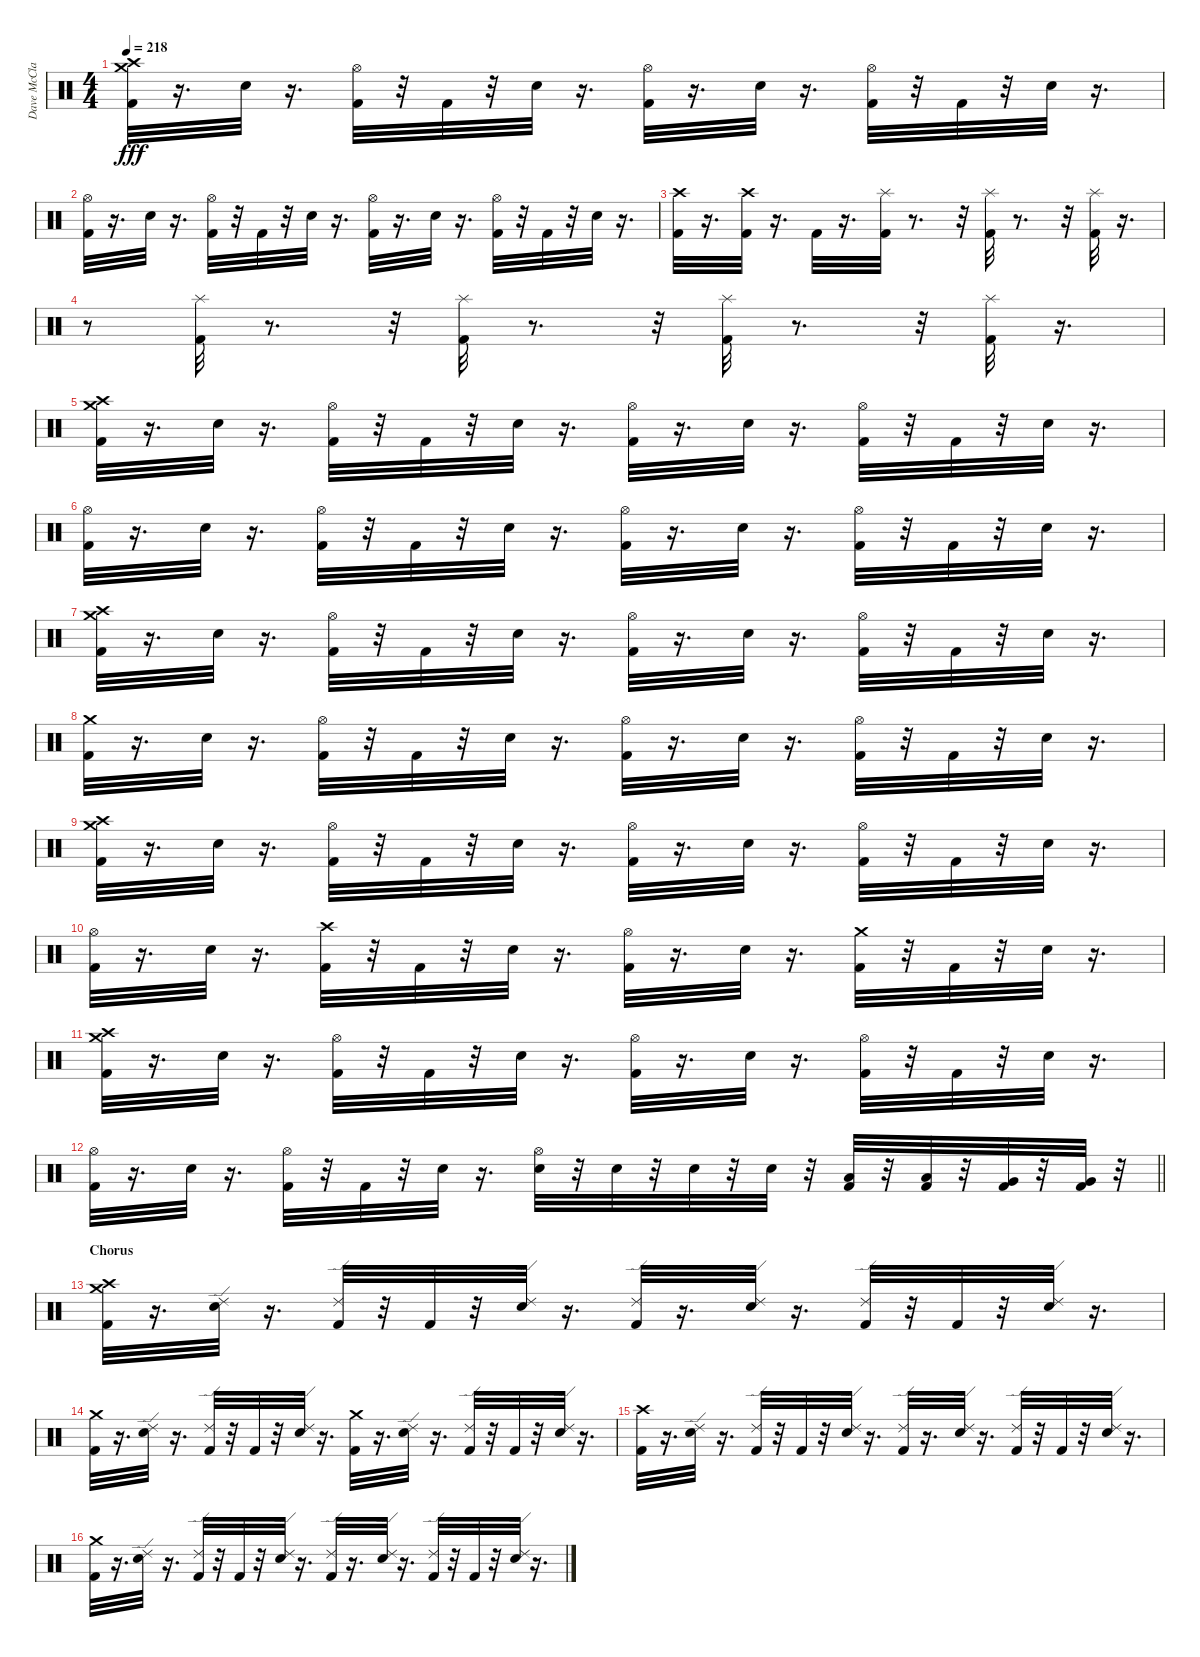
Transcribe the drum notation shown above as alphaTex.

\track ("Dave McClain" "Dave McCla") {instrument percussion}
\staff {score}
\articulation defaults
\ts (4 4)
\tempo 218
\clef neutral
\ks c
("Crash medium (hit)" "Crash high (hit)" "Kick (hit) 2").32{dy fff} r.16{d} "Snare (hit) 2".32 r.16{d} ("Kick (hit) 2" "Hi-Hat (open)").32 r.32 "Kick (hit) 2".32 r.32 "Snare (hit) 2".32 r.16{d} ("Hi-Hat (open)" "Kick (hit) 2").32 r.16{d} "Snare (hit) 2".32 r.16{d} ("Hi-Hat (open)" "Kick (hit) 2").32 r.32 "Kick (hit) 2".32 r.32 "Snare (hit) 2".32 r.16{d} |
("Hi-Hat (open)" "Kick (hit) 2").32 r.16{d} "Snare (hit) 2".32 r.16{d} ("Hi-Hat (open)" "Kick (hit) 2").32 r.32 "Kick (hit) 2".32 r.32 "Snare (hit) 2".32 r.16{d} ("Hi-Hat (open)" "Kick (hit) 2").32 r.16{d} "Snare (hit) 2".32 r.16{d} ("Hi-Hat (open)" "Kick (hit) 2").32 r.32 "Kick (hit) 2".32 r.32 "Snare (hit) 2".32 r.16{d} |
("Crash high (hit)" "Kick (hit) 2").32 r.16{d} ("Crash high (hit)" "Kick (hit) 2").32 r.16{d} "Kick (hit) 2".32 r.16{d} ("Kick (hit) 2" "Splash (hit)").32 r.8{d} r.32 ("Kick (hit) 2" "Splash (hit)").32 r.8{d} r.32 ("Kick (hit) 2" "Splash (hit)").32 r.16{d} |
r.8 ("Kick (hit) 2" "Splash (hit)").32 r.8{d} r.32 ("Kick (hit) 2" "Splash (hit)").32 r.8{d} r.32 ("Kick (hit) 2" "Splash (hit)").32 r.8{d} r.32 ("Splash (hit)" "Kick (hit) 2").32 r.16{d} |
("Crash medium (hit)" "Crash high (hit)" "Kick (hit) 2").32 r.16{d} "Snare (hit) 2".32 r.16{d} ("Kick (hit) 2" "Hi-Hat (open)").32 r.32 "Kick (hit) 2".32 r.32 "Snare (hit) 2".32 r.16{d} ("Hi-Hat (open)" "Kick (hit) 2").32 r.16{d} "Snare (hit) 2".32 r.16{d} ("Hi-Hat (open)" "Kick (hit) 2").32 r.32 "Kick (hit) 2".32 r.32 "Snare (hit) 2".32 r.16{d} |
("Hi-Hat (open)" "Kick (hit) 2").32 r.16{d} "Snare (hit) 2".32 r.16{d} ("Hi-Hat (open)" "Kick (hit) 2").32 r.32 "Kick (hit) 2".32 r.32 "Snare (hit) 2".32 r.16{d} ("Hi-Hat (open)" "Kick (hit) 2").32 r.16{d} "Snare (hit) 2".32 r.16{d} ("Hi-Hat (open)" "Kick (hit) 2").32 r.32 "Kick (hit) 2".32 r.32 "Snare (hit) 2".32 r.16{d} |
("Crash medium (hit)" "Crash high (hit)" "Kick (hit) 2").32 r.16{d} "Snare (hit) 2".32 r.16{d} ("Kick (hit) 2" "Hi-Hat (open)").32 r.32 "Kick (hit) 2".32 r.32 "Snare (hit) 2".32 r.16{d} ("Hi-Hat (open)" "Kick (hit) 2").32 r.16{d} "Snare (hit) 2".32 r.16{d} ("Hi-Hat (open)" "Kick (hit) 2").32 r.32 "Kick (hit) 2".32 r.32 "Snare (hit) 2".32 r.16{d} |
("Crash medium (hit)" "Kick (hit) 2").32 r.16{d} "Snare (hit) 2".32 r.16{d} ("Hi-Hat (open)" "Kick (hit) 2").32 r.32 "Kick (hit) 2".32 r.32 "Snare (hit) 2".32 r.16{d} ("Hi-Hat (open)" "Kick (hit) 2").32 r.16{d} "Snare (hit) 2".32 r.16{d} ("Hi-Hat (open)" "Kick (hit) 2").32 r.32 "Kick (hit) 2".32 r.32 "Snare (hit) 2".32 r.16{d} |
("Crash medium (hit)" "Crash high (hit)" "Kick (hit) 2").32 r.16{d} "Snare (hit) 2".32 r.16{d} ("Kick (hit) 2" "Hi-Hat (open)").32 r.32 "Kick (hit) 2".32 r.32 "Snare (hit) 2".32 r.16{d} ("Hi-Hat (open)" "Kick (hit) 2").32 r.16{d} "Snare (hit) 2".32 r.16{d} ("Hi-Hat (open)" "Kick (hit) 2").32 r.32 "Kick (hit) 2".32 r.32 "Snare (hit) 2".32 r.16{d} |
("Hi-Hat (open)" "Kick (hit) 2").32 r.16{d} "Snare (hit) 2".32 r.16{d} ("Crash high (hit)" "Kick (hit) 2").32 r.32 "Kick (hit) 2".32 r.32 "Snare (hit) 2".32 r.16{d} ("Hi-Hat (open)" "Kick (hit) 2").32 r.16{d} "Snare (hit) 2".32 r.16{d} ("Crash medium (hit)" "Kick (hit) 2").32 r.32 "Kick (hit) 2".32 r.32 "Snare (hit) 2".32 r.16{d} |
("Crash medium (hit)" "Crash high (hit)" "Kick (hit) 2").32 r.16{d} "Snare (hit) 2".32 r.16{d} ("Kick (hit) 2" "Hi-Hat (open)").32 r.32 "Kick (hit) 2".32 r.32 "Snare (hit) 2".32 r.16{d} ("Hi-Hat (open)" "Kick (hit) 2").32 r.16{d} "Snare (hit) 2".32 r.16{d} ("Hi-Hat (open)" "Kick (hit) 2").32 r.32 "Kick (hit) 2".32 r.32 "Snare (hit) 2".32 r.16{d} |
\barLineRight lightlight
("Hi-Hat (open)" "Kick (hit) 2").32 r.16{d} "Snare (hit) 2".32 r.16{d} ("Hi-Hat (open)" "Kick (hit) 2").32 r.32 "Kick (hit) 2".32 r.32 "Snare (hit) 2".32 r.16{d} ("Snare (hit) 2" "Hi-Hat (open)").32 r.32 "Snare (hit) 2".32 r.32 "Snare (hit) 2".32 r.32 "Snare (hit) 2".32 r.32 ("Low Tom (hit)" "Kick (hit) 2").32 r.32 ("Low Tom (hit)" "Kick (hit) 2").32 r.32 ("Very Low Tom (hit)" "Kick (hit) 2").32 r.32 ("Very Low Tom (hit)" "Kick (hit) 2").32 r.32 |
\section ("" "Chorus")
("Crash medium (hit)" "Crash high (hit)" "Kick (hit) 2").32 r.16{d} ("Ride (edge) 2" "Snare (hit) 2").32 r.16{d} ("Ride (edge) 2" "Kick (hit) 2").32 r.32 "Kick (hit) 2".32 r.32 ("Ride (edge) 2" "Snare (hit) 2").32 r.16{d} ("Ride (edge) 2" "Kick (hit) 2").32 r.16{d} ("Ride (edge) 2" "Snare (hit) 2").32 r.16{d} ("Ride (edge) 2" "Kick (hit) 2").32 r.32 "Kick (hit) 2".32 r.32 ("Ride (edge) 2" "Snare (hit) 2").32 r.16{d} |
("Crash medium (hit)" "Kick (hit) 2").32 r.16{d} ("Ride (edge) 2" "Snare (hit) 2").32 r.16{d} ("Ride (edge) 2" "Kick (hit) 2").32 r.32 "Kick (hit) 2".32 r.32 ("Ride (edge) 2" "Snare (hit) 2").32 r.16{d} ("Crash medium (hit)" "Kick (hit) 2").32 r.16{d} ("Ride (edge) 2" "Snare (hit) 2").32 r.16{d} ("Ride (edge) 2" "Kick (hit) 2").32 r.32 "Kick (hit) 2".32 r.32 ("Ride (edge) 2" "Snare (hit) 2").32 r.16{d} |
("Crash high (hit)" "Kick (hit) 2").32 r.16{d} ("Ride (edge) 2" "Snare (hit) 2").32 r.16{d} ("Ride (edge) 2" "Kick (hit) 2").32 r.32 "Kick (hit) 2".32 r.32 ("Ride (edge) 2" "Snare (hit) 2").32 r.16{d} ("Ride (edge) 2" "Kick (hit) 2").32 r.16{d} ("Ride (edge) 2" "Snare (hit) 2").32 r.16{d} ("Ride (edge) 2" "Kick (hit) 2").32 r.32 "Kick (hit) 2".32 r.32 ("Ride (edge) 2" "Snare (hit) 2").32 r.16{d} |
("Crash medium (hit)" "Kick (hit) 2").32 r.16{d} ("Ride (edge) 2" "Snare (hit) 2").32 r.16{d} ("Ride (edge) 2" "Kick (hit) 2").32 r.32 "Kick (hit) 2".32 r.32 ("Ride (edge) 2" "Snare (hit) 2").32 r.16{d} ("Ride (edge) 2" "Kick (hit) 2").32 r.16{d} ("Ride (edge) 2" "Snare (hit) 2").32 r.16{d} ("Ride (edge) 2" "Kick (hit) 2").32 r.32 "Kick (hit) 2".32 r.32 ("Ride (edge) 2" "Snare (hit) 2").32 r.16{d}
